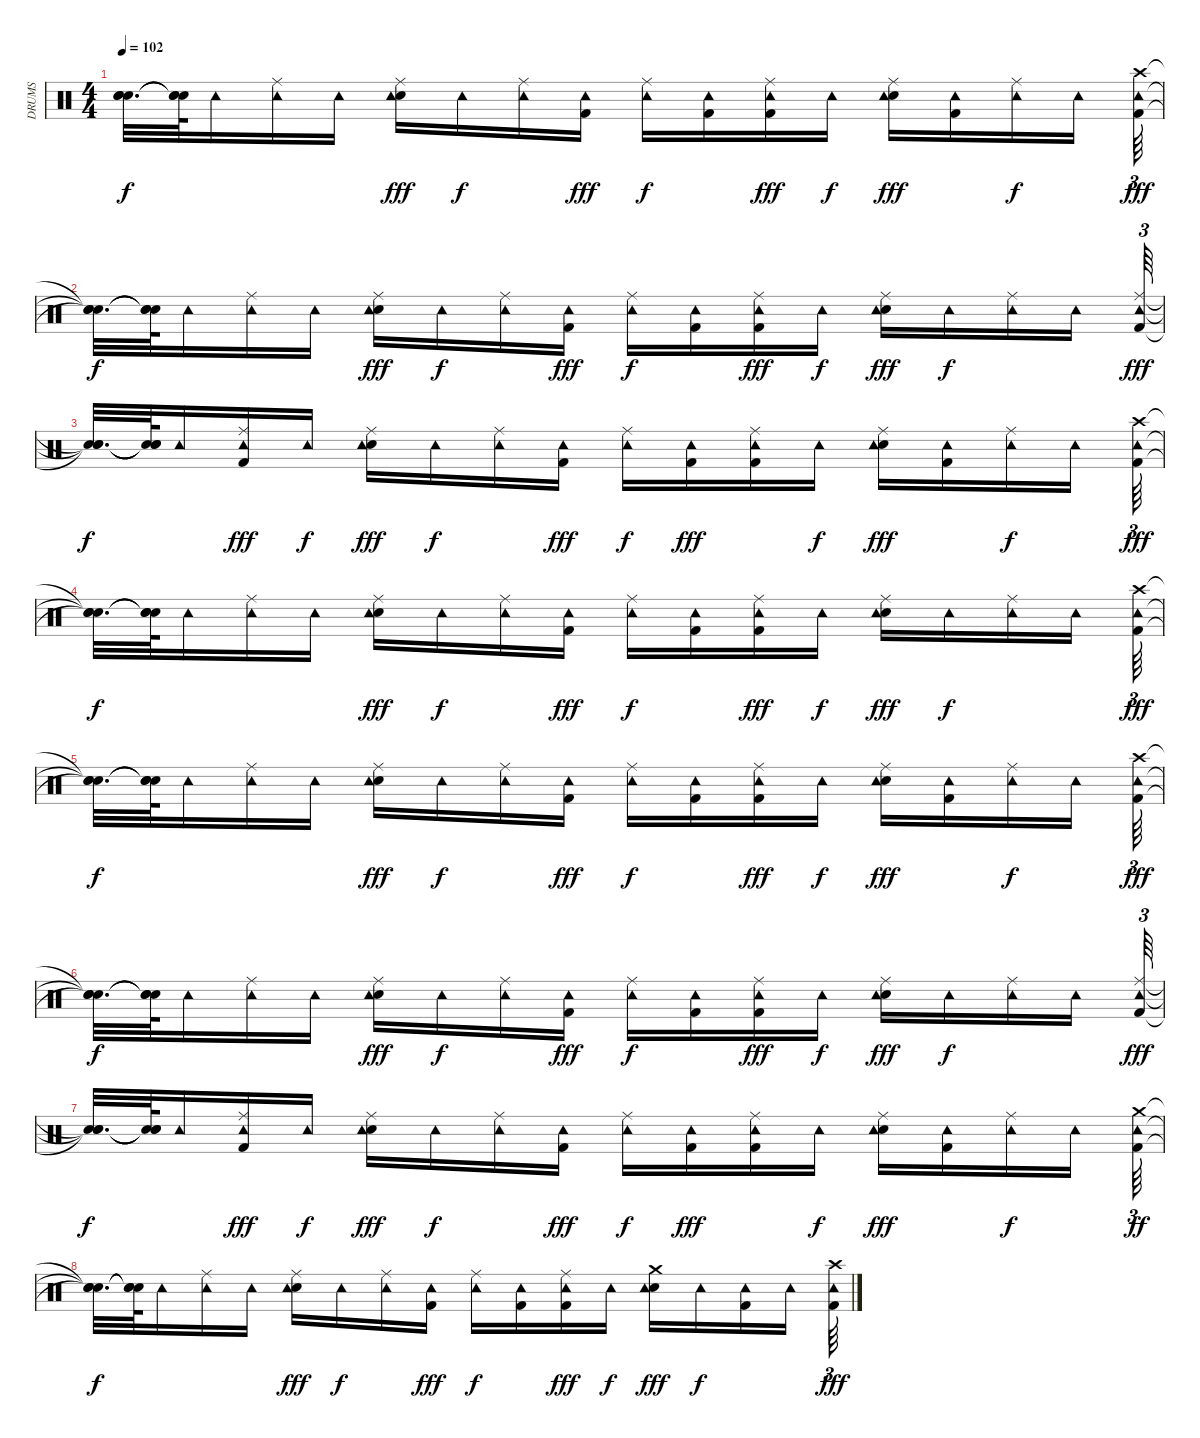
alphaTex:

\track ("DRUMS" "DRUMS") {instrument percussion}
\staff {score}
\articulation defaults
\ts (4 4)
\tempo 102
\clef neutral
\ks c
("Snare (hit)"{t} "Snare (hit)"{t} "Snare (hit)"{t}).32{d dy f} ("Snare (hit)"{t} "Snare (hit)"{t} "Snare (hit)"{t}).64 "Tambourine (hit)".16 ("Ride (middle)" "Tambourine (hit)").16 "Tambourine (hit)".16 ("Snare (hit) 2" "Ride (middle)" "Tambourine (hit)").16{dy fff} "Tambourine (hit)".16{dy f} ("Ride (middle)" "Tambourine (hit)").16 ("Kick (hit) 2" "Tambourine (hit)").16{dy fff} ("Ride (middle)" "Tambourine (hit)").16{dy f} ("Kick (hit) 2" "Tambourine (hit)").16 ("Kick (hit) 2" "Ride (middle)" "Tambourine (hit)").16{dy fff} "Tambourine (hit)".16{dy f} ("Snare (hit) 2" "Ride (middle)" "Tambourine (hit)").16{dy fff} ("Kick (hit) 2" "Tambourine (hit)").16 ("Ride (middle)" "Tambourine (hit)").16{dy f} "Tambourine (hit)".16 ("Kick (hit) 2" "Crash high (hit)" "Tambourine (hit)").64{tu (3 2) dy fff} |
("Snare (hit)"{t} "Snare (hit)"{t} "Snare (hit)"{t}).32{d dy f} ("Snare (hit)"{t} "Snare (hit)"{t} "Snare (hit)"{t}).64 "Tambourine (hit)".16 ("Ride (middle)" "Tambourine (hit)").16 "Tambourine (hit)".16 ("Snare (hit) 2" "Ride (middle)" "Tambourine (hit)").16{dy fff} "Tambourine (hit)".16{dy f} ("Ride (middle)" "Tambourine (hit)").16 ("Kick (hit) 2" "Tambourine (hit)").16{dy fff} ("Ride (middle)" "Tambourine (hit)").16{dy f} ("Kick (hit) 2" "Tambourine (hit)").16 ("Ride (middle)" "Kick (hit) 2" "Tambourine (hit)").16{dy fff} "Tambourine (hit)".16{dy f} ("Snare (hit) 2" "Ride (middle)" "Tambourine (hit)").16{dy fff} "Tambourine (hit)".16{dy f} ("Ride (middle)" "Tambourine (hit)").16 "Tambourine (hit)".16 ("Kick (hit) 2" "Ride (middle)" "Tambourine (hit)").64{tu (3 2) dy fff} |
("Snare (hit)"{t} "Snare (hit)"{t} "Snare (hit)"{t}).32{d dy f} ("Snare (hit)"{t} "Snare (hit)"{t} "Snare (hit)"{t}).64 "Tambourine (hit)".16 ("Kick (hit) 2" "Ride (middle)" "Tambourine (hit)").16{dy fff} "Tambourine (hit)".16{dy f} ("Snare (hit) 2" "Ride (middle)" "Tambourine (hit)").16{dy fff} "Tambourine (hit)".16{dy f} ("Ride (middle)" "Tambourine (hit)").16 ("Kick (hit) 2" "Tambourine (hit)").16{dy fff} ("Ride (middle)" "Tambourine (hit)").16{dy f} ("Kick (hit) 2" "Tambourine (hit)").16{dy fff} ("Ride (middle)" "Kick (hit) 2" "Tambourine (hit)").16 "Tambourine (hit)".16{dy f} ("Snare (hit) 2" "Ride (middle)" "Tambourine (hit)").16{dy fff} ("Kick (hit) 2" "Tambourine (hit)").16 ("Ride (middle)" "Tambourine (hit)").16{dy f} "Tambourine (hit)".16 ("Kick (hit) 2" "Crash high (hit)" "Tambourine (hit)").64{tu (3 2) dy fff} |
("Snare (hit)"{t} "Snare (hit)"{t} "Snare (hit)"{t}).32{d dy f} ("Snare (hit)"{t} "Snare (hit)"{t} "Snare (hit)"{t}).64 "Tambourine (hit)".16 ("Ride (middle)" "Tambourine (hit)").16 "Tambourine (hit)".16 ("Snare (hit) 2" "Ride (middle)" "Tambourine (hit)").16{dy fff} "Tambourine (hit)".16{dy f} ("Ride (middle)" "Tambourine (hit)").16 ("Kick (hit) 2" "Tambourine (hit)").16{dy fff} ("Ride (middle)" "Tambourine (hit)").16{dy f} ("Kick (hit) 2" "Tambourine (hit)").16 ("Ride (middle)" "Kick (hit) 2" "Tambourine (hit)").16{dy fff} "Tambourine (hit)".16{dy f} ("Snare (hit) 2" "Ride (middle)" "Tambourine (hit)").16{dy fff} "Tambourine (hit)".16{dy f} ("Ride (middle)" "Tambourine (hit)").16 "Tambourine (hit)".16 ("Kick (hit) 2" "Crash high (hit)" "Tambourine (hit)").64{tu (3 2) dy fff} |
("Snare (hit)"{t} "Snare (hit)"{t} "Snare (hit)"{t}).32{d dy f} ("Snare (hit)"{t} "Snare (hit)"{t} "Snare (hit)"{t}).64 "Tambourine (hit)".16 ("Ride (middle)" "Tambourine (hit)").16 "Tambourine (hit)".16 ("Snare (hit) 2" "Ride (middle)" "Tambourine (hit)").16{dy fff} "Tambourine (hit)".16{dy f} ("Ride (middle)" "Tambourine (hit)").16 ("Kick (hit) 2" "Tambourine (hit)").16{dy fff} ("Ride (middle)" "Tambourine (hit)").16{dy f} ("Kick (hit) 2" "Tambourine (hit)").16 ("Kick (hit) 2" "Ride (middle)" "Tambourine (hit)").16{dy fff} "Tambourine (hit)".16{dy f} ("Snare (hit) 2" "Ride (middle)" "Tambourine (hit)").16{dy fff} ("Kick (hit) 2" "Tambourine (hit)").16 ("Ride (middle)" "Tambourine (hit)").16{dy f} "Tambourine (hit)".16 ("Kick (hit) 2" "Crash high (hit)" "Tambourine (hit)").64{tu (3 2) dy fff} |
("Snare (hit)"{t} "Snare (hit)"{t} "Snare (hit)"{t}).32{d dy f} ("Snare (hit)"{t} "Snare (hit)"{t} "Snare (hit)"{t}).64 "Tambourine (hit)".16 ("Ride (middle)" "Tambourine (hit)").16 "Tambourine (hit)".16 ("Snare (hit) 2" "Ride (middle)" "Tambourine (hit)").16{dy fff} "Tambourine (hit)".16{dy f} ("Ride (middle)" "Tambourine (hit)").16 ("Kick (hit) 2" "Tambourine (hit)").16{dy fff} ("Ride (middle)" "Tambourine (hit)").16{dy f} ("Kick (hit) 2" "Tambourine (hit)").16 ("Ride (middle)" "Kick (hit) 2" "Tambourine (hit)").16{dy fff} "Tambourine (hit)".16{dy f} ("Snare (hit) 2" "Ride (middle)" "Tambourine (hit)").16{dy fff} "Tambourine (hit)".16{dy f} ("Ride (middle)" "Tambourine (hit)").16 "Tambourine (hit)".16 ("Kick (hit) 2" "Ride (middle)" "Tambourine (hit)").64{tu (3 2) dy fff} |
("Snare (hit)"{t} "Snare (hit)"{t} "Snare (hit)"{t}).32{d dy f} ("Snare (hit)"{t} "Snare (hit)"{t} "Snare (hit)"{t}).64 "Tambourine (hit)".16 ("Kick (hit) 2" "Ride (middle)" "Tambourine (hit)").16{dy fff} "Tambourine (hit)".16{dy f} ("Snare (hit) 2" "Ride (middle)" "Tambourine (hit)").16{dy fff} "Tambourine (hit)".16{dy f} ("Ride (middle)" "Tambourine (hit)").16 ("Kick (hit) 2" "Tambourine (hit)").16{dy fff} ("Ride (middle)" "Tambourine (hit)").16{dy f} ("Kick (hit) 2" "Tambourine (hit)").16{dy fff} ("Ride (middle)" "Kick (hit) 2" "Tambourine (hit)").16 "Tambourine (hit)".16{dy f} ("Snare (hit) 2" "Ride (middle)" "Tambourine (hit)").16{dy fff} ("Kick (hit) 2" "Tambourine (hit)").16 ("Ride (middle)" "Tambourine (hit)").16{dy f} "Tambourine (hit)".16 ("Kick (hit) 2" "Crash medium (hit)" "Tambourine (hit)").64{tu (3 2) dy ff} |
("Snare (hit)"{t} "Snare (hit)"{t} "Snare (hit)"{t}).32{d dy f} ("Snare (hit)"{t} "Snare (hit)"{t} "Snare (hit)"{t}).64 "Tambourine (hit)".16 ("Ride (middle)" "Tambourine (hit)").16 "Tambourine (hit)".16 ("Snare (hit) 2" "Ride (middle)" "Tambourine (hit)").16{dy fff} "Tambourine (hit)".16{dy f} ("Ride (middle)" "Tambourine (hit)").16 ("Kick (hit) 2" "Tambourine (hit)").16{dy fff} ("Ride (middle)" "Tambourine (hit)").16{dy f} ("Kick (hit) 2" "Tambourine (hit)").16 ("Ride (middle)" "Kick (hit) 2" "Tambourine (hit)").16{dy fff} "Tambourine (hit)".16{dy f} ("Snare (hit) 2" "Crash medium (hit)" "Tambourine (hit)").16{dy fff} "Tambourine (hit)".16{dy f} ("Kick (hit) 2" "Tambourine (hit)").16 "Tambourine (hit)".16 ("Crash high (hit)" "Kick (hit) 2" "Tambourine (hit)").64{tu (3 2) dy fff}
